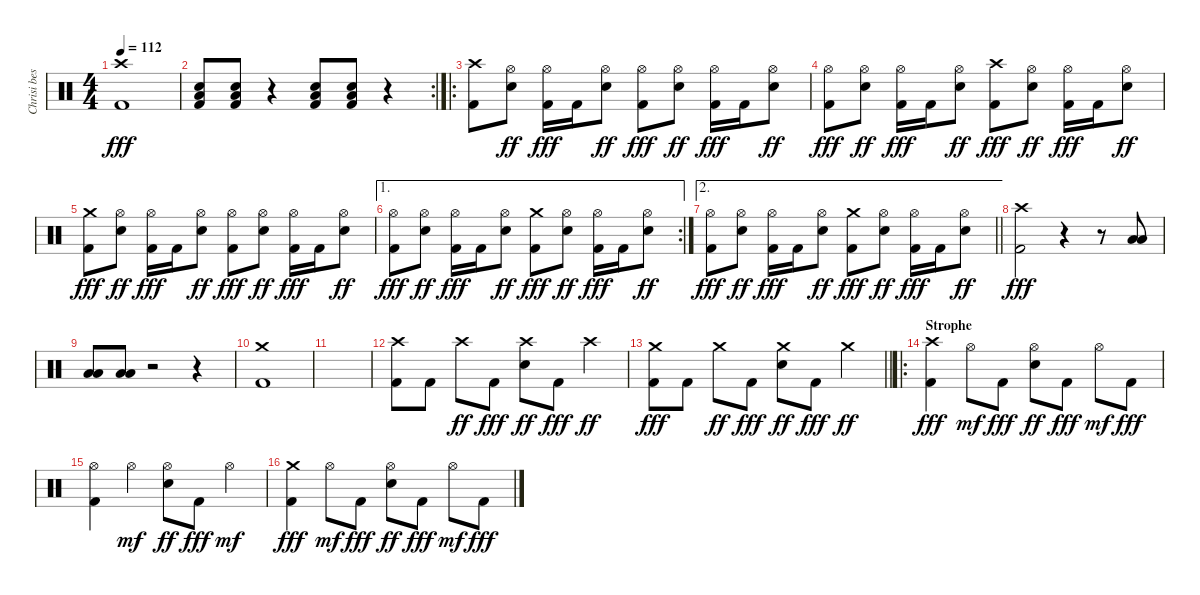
\track ("Chrisi bestimmt" "Chrisi bes") {instrument percussion}
\staff {score}
\articulation defaults
\ts (4 4)
\tempo 112
\clef neutral
\ks c
("Crash high (hit)" "Kick (hit) 2").1{dy fff} |
\rc 2
("Low Floor Tom (hit)" "Electric Snare (hit)" "Kick (hit) 2").8 ("Low Floor Tom (hit)" "Electric Snare (hit)" "Kick (hit) 2").8 r.4 ("Low Floor Tom (hit)" "Electric Snare (hit)" "Kick (hit) 2").8 ("Low Floor Tom (hit)" "Electric Snare (hit)" "Kick (hit) 2").8 r.4 |
\ro
("Crash high (hit)" "Kick (hit) 2").8 ("Hi-Hat (open)" "Electric Snare (hit)").8{dy ff} ("Hi-Hat (open)" "Kick (hit) 2").16{dy fff} "Kick (hit) 2".16 ("Hi-Hat (open)" "Electric Snare (hit)").8{dy ff} ("Hi-Hat (open)" "Kick (hit) 2").8{dy fff} ("Hi-Hat (open)" "Electric Snare (hit)").8{dy ff} ("Hi-Hat (open)" "Kick (hit) 2").16{dy fff} "Kick (hit) 2".16 ("Hi-Hat (open)" "Electric Snare (hit)").8{dy ff} |
("Hi-Hat (open)" "Kick (hit) 2").8{dy fff} ("Hi-Hat (open)" "Electric Snare (hit)").8{dy ff} ("Hi-Hat (open)" "Kick (hit) 2").16{dy fff} "Kick (hit) 2".16 ("Hi-Hat (open)" "Electric Snare (hit)").8{dy ff} ("Crash high (hit)" "Kick (hit) 2").8{dy fff} ("Hi-Hat (open)" "Electric Snare (hit)").8{dy ff} ("Hi-Hat (open)" "Kick (hit) 2").16{dy fff} "Kick (hit) 2".16 ("Hi-Hat (open)" "Electric Snare (hit)").8{dy ff} |
("Crash medium (hit)" "Kick (hit) 2").8{dy fff} ("Hi-Hat (open)" "Electric Snare (hit)").8{dy ff} ("Hi-Hat (open)" "Kick (hit) 2").16{dy fff} "Kick (hit) 2".16 ("Hi-Hat (open)" "Electric Snare (hit)").8{dy ff} ("Hi-Hat (open)" "Kick (hit) 2").8{dy fff} ("Hi-Hat (open)" "Electric Snare (hit)").8{dy ff} ("Hi-Hat (open)" "Kick (hit) 2").16{dy fff} "Kick (hit) 2".16 ("Hi-Hat (open)" "Electric Snare (hit)").8{dy ff} |
\ae 1
\rc 2
("Hi-Hat (open)" "Kick (hit) 2").8{dy fff} ("Hi-Hat (open)" "Electric Snare (hit)").8{dy ff} ("Hi-Hat (open)" "Kick (hit) 2").16{dy fff} "Kick (hit) 2".16 ("Hi-Hat (open)" "Electric Snare (hit)").8{dy ff} ("Crash medium (hit)" "Kick (hit) 2").8{dy fff} ("Hi-Hat (open)" "Electric Snare (hit)").8{dy ff} ("Hi-Hat (open)" "Kick (hit) 2").16{dy fff} "Kick (hit) 2".16 ("Hi-Hat (open)" "Electric Snare (hit)").8{dy ff} |
\ae 2
\barLineRight lightlight
("Hi-Hat (open)" "Kick (hit) 2").8{dy fff} ("Hi-Hat (open)" "Electric Snare (hit)").8{dy ff} ("Hi-Hat (open)" "Kick (hit) 2").16{dy fff} "Kick (hit) 2".16 ("Hi-Hat (open)" "Electric Snare (hit)").8{dy ff} ("Crash medium (hit)" "Kick (hit) 2").8{dy fff} ("Hi-Hat (open)" "Electric Snare (hit)").8{dy ff} ("Hi-Hat (open)" "Kick (hit) 2").16{dy fff} "Kick (hit) 2".16 ("Hi-Hat (open)" "Electric Snare (hit)").8{dy ff} |
("Crash high (hit)" "Kick (hit) 2").2{dy fff} r.4 r.8 ("Low Floor Tom (hit)" "Low Floor Tom (hit)").8 |
("Low Floor Tom (hit)" "Low Floor Tom (hit)").8 ("Low Floor Tom (hit)" "Low Floor Tom (hit)").8 r.2 r.4 |
("Crash medium (hit)" "Kick (hit) 2").1 |
|
("Crash high (hit)" "Kick (hit) 2").8 "Kick (hit) 2".8 "Crash high (hit)".8{dy ff} "Kick (hit) 2".8{dy fff} ("Crash high (hit)" "Electric Snare (hit)").8{dy ff} "Kick (hit) 2".8{dy fff} "Crash high (hit)".4{dy ff} |
\barLineRight lightlight
("Crash medium (hit)" "Kick (hit) 2").8{dy fff} "Kick (hit) 2".8 "Crash medium (hit)".8{dy ff} "Kick (hit) 2".8{dy fff} ("Crash medium (hit)" "Electric Snare (hit)").8{dy ff} "Kick (hit) 2".8{dy fff} "Crash medium (hit)".4{dy ff} |
\ro
\section ("" "Strophe")
("Crash high (hit)" "Kick (hit) 2").4{dy fff} "Hi-Hat (open)".8{dy mf} "Kick (hit) 2".8{dy fff} ("Hi-Hat (open)" "Electric Snare (hit)").8{dy ff} "Kick (hit) 2".8{dy fff} "Hi-Hat (open)".8{dy mf} "Kick (hit) 2".8{dy fff} |
("Hi-Hat (open)" "Kick (hit) 2").4 "Hi-Hat (open)".4{dy mf} ("Hi-Hat (open)" "Electric Snare (hit)").8{dy ff} "Kick (hit) 2".8{dy fff} "Hi-Hat (open)".4{dy mf} |
("Crash medium (hit)" "Kick (hit) 2").4{dy fff} "Hi-Hat (open)".8{dy mf} "Kick (hit) 2".8{dy fff} ("Hi-Hat (open)" "Electric Snare (hit)").8{dy ff} "Kick (hit) 2".8{dy fff} "Hi-Hat (open)".8{dy mf} "Kick (hit) 2".8{dy fff}
